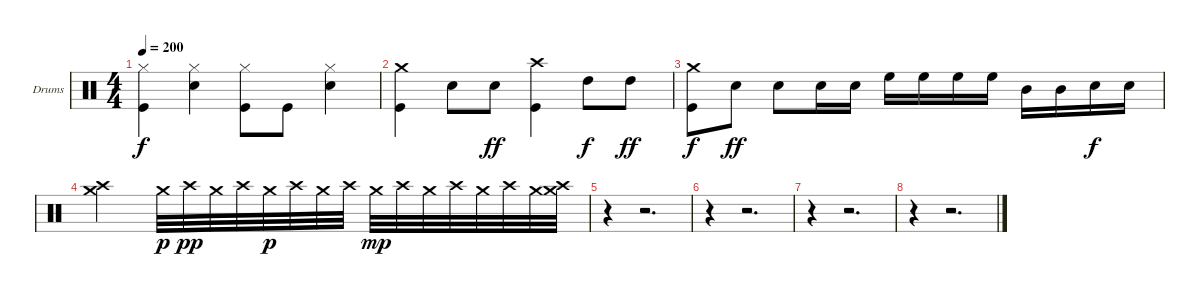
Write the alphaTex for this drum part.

\bracketExtendMode groupsimilarinstruments
\firstSystemTrackNameOrientation horizontal
\otherSystemsTrackNameOrientation horizontal
\track ("Drumkit" "Drums") {instrument percussion}
\staff {score}
\articulation defaults
\ts (4 4)
\tempo 200
\clef neutral
\ks c
("Hi-Hat (closed)" "Kick (hit)").4{dy f} ("Hi-Hat (closed)" "Snare (hit) 2").4 ("Hi-Hat (closed)" "Kick (hit)").8 "Kick (hit)".8 ("Hi-Hat (closed)" "Snare (hit) 2").4 |
("Crash medium (hit)" "Kick (hit)").4 "Snare (hit) 2".8 "Snare (hit) 2".8{dy ff} ("Crash high (hit)" "Kick (hit)").4 "High Tom (hit)".8{dy f} "High Tom (hit)".8{dy ff} |
("Crash medium (hit)" "Kick (hit)").8{dy f} "Snare (hit) 2".8{dy ff} "Snare (hit) 2".8 "Snare (hit) 2".16 "Snare (hit) 2".16 "High Floor Tom (hit)".16 "High Floor Tom (hit)".16 "High Floor Tom (hit)".16 "High Floor Tom (hit)".16 "Mid Tom (hit)".16 "Mid Tom (hit)".16 "Snare (hit) 2".16{dy f} "Snare (hit) 2".16 |
("Crash medium (hit)" "Crash high (hit)").2 "Crash medium (hit)".32{dy p} "Crash high (hit)".32{dy pp} "Crash medium (hit)".32 "Crash high (hit)".32 "Crash medium (hit)".32{dy p} "Crash high (hit)".32 "Crash medium (hit)".32 "Crash high (hit)".32 "Crash medium (hit)".32{dy mp} "Crash high (hit)".32 "Crash medium (hit)".32 "Crash high (hit)".32 "Crash medium (hit)".32 "Crash high (hit)".32 "Crash medium (hit)".32 ("Crash high (hit)" "Crash medium (hit)").32 |
r.4 r.2{d} |
r.4 r.2{d} |
r.4 r.2{d} |
r.4 r.2{d}
